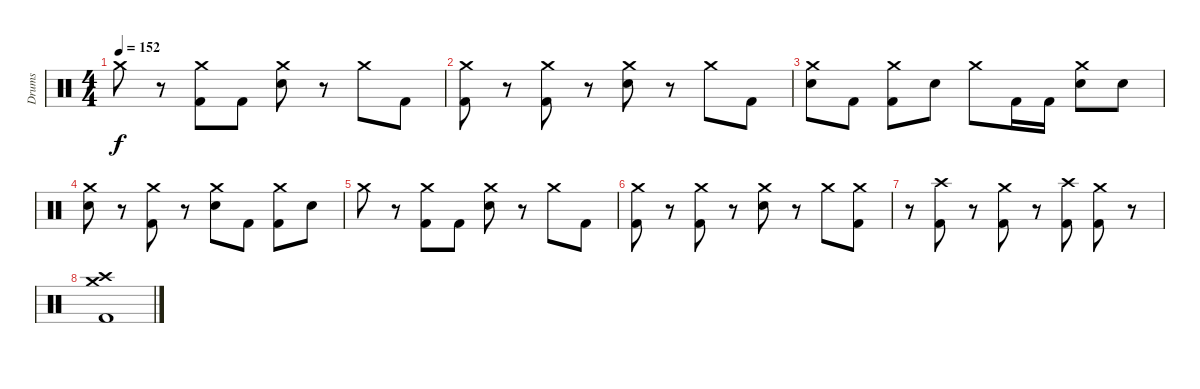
\track ("Drums" "Drums") {instrument percussion}
\staff
\articulation defaults
\ts (4 4)
\tempo 152
\clef neutral
\ks c "Crash medium (hit)".8{dy f}
r.8 ("Crash medium (hit)" "Kick (hit) 2").8 "Kick (hit) 2".8 ("Crash medium (hit)" "Electric Snare (hit)").8 r.8 "Crash medium (hit)".8 "Kick (hit) 2".8 |
("Crash medium (hit)" "Kick (hit) 2").8 r.8 ("Crash medium (hit)" "Kick (hit) 2").8 r.8 ("Crash medium (hit)" "Electric Snare (hit)").8 r.8 "Crash medium (hit)".8 "Kick (hit) 2".8 |
("Crash medium (hit)" "Electric Snare (hit)").8 "Kick (hit) 2".8 ("Crash medium (hit)" "Kick (hit) 2").8 "Electric Snare (hit)".8 "Crash medium (hit)".8 "Kick (hit) 2".16 "Kick (hit) 2".16 ("Crash medium (hit)" "Electric Snare (hit)").8 "Electric Snare (hit)".8 |
("Crash medium (hit)" "Electric Snare (hit)").8 r.8 ("Crash medium (hit)" "Kick (hit) 2").8 r.8 ("Crash medium (hit)" "Electric Snare (hit)").8 "Kick (hit) 2".8 ("Crash medium (hit)" "Kick (hit) 2").8 "Electric Snare (hit)".8 |
"Crash medium (hit)".8 r.8 ("Crash medium (hit)" "Kick (hit) 2").8 "Kick (hit) 2".8 ("Crash medium (hit)" "Electric Snare (hit)").8 r.8 "Crash medium (hit)".8 "Kick (hit) 2".8 |
("Crash medium (hit)" "Kick (hit) 2").8 r.8 ("Crash medium (hit)" "Kick (hit) 2").8 r.8 ("Crash medium (hit)" "Electric Snare (hit)").8 r.8 "Crash medium (hit)".8 ("Crash medium (hit)" "Kick (hit) 2").8 |
r.8 ("Crash high (hit)" "Kick (hit) 2").8 r.8 ("Crash medium (hit)" "Kick (hit) 2").8 r.8 ("Crash high (hit)" "Kick (hit) 2").8 ("Crash medium (hit)" "Kick (hit) 2").8 r.8 |
("Crash medium (hit)" "Crash high (hit)" "Kick (hit) 2").1
